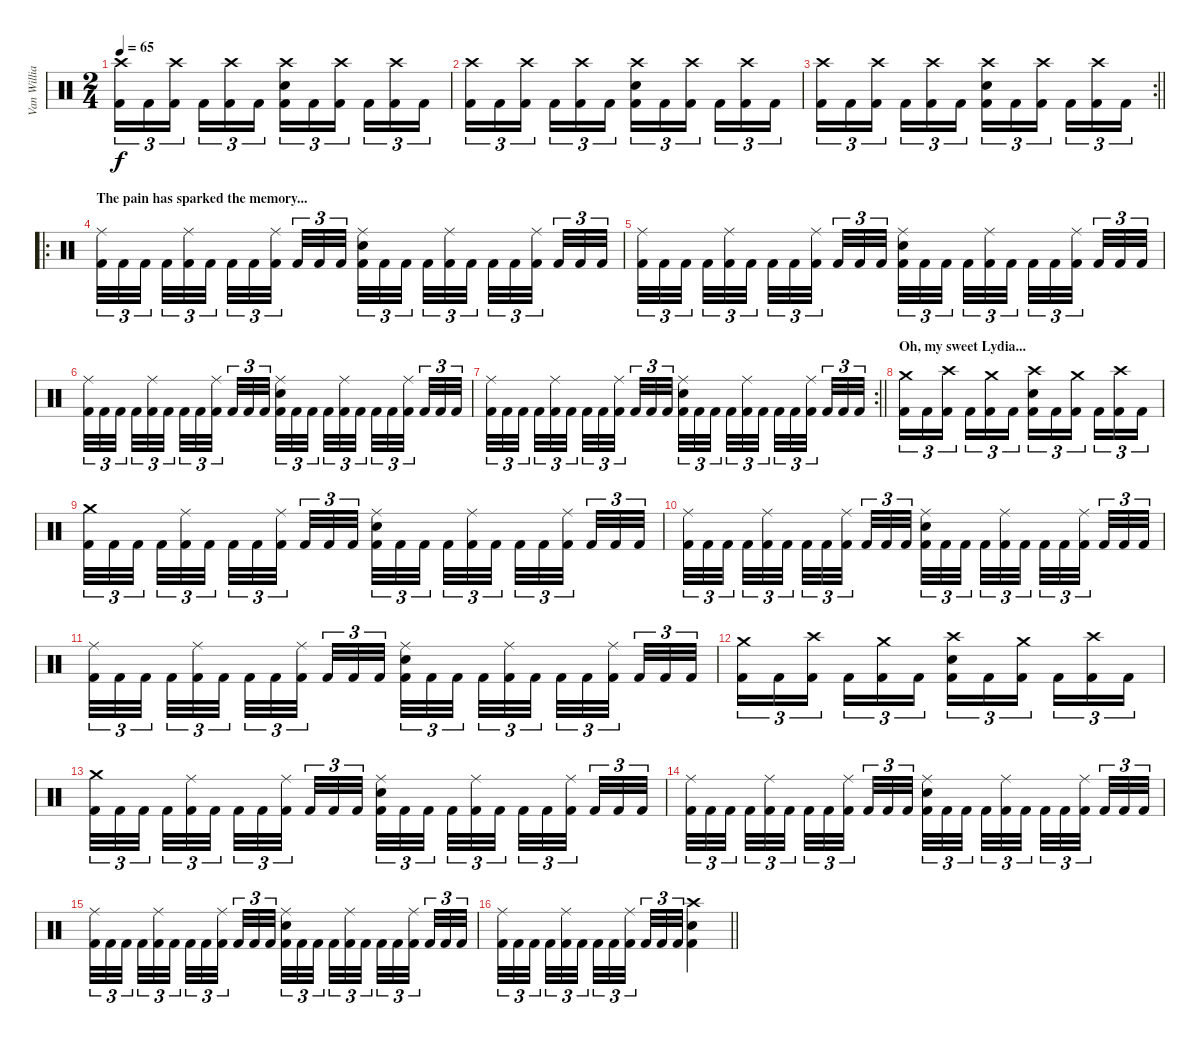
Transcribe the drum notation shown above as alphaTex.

\track ("Van Williams" "Van Willia") {instrument percussion}
\staff
\articulation defaults
\ts (2 4)
\tempo 65
\clef neutral
\ks c
("Crash high (hit)" "Kick (hit) 2").16{tu (3 2) dy f} "Kick (hit) 2".16{tu (3 2)} ("Crash high (hit)" "Kick (hit) 2").16{tu (3 2) beam splitsecondary} "Kick (hit) 2".16{tu (3 2)} ("Crash high (hit)" "Kick (hit) 2").16{tu (3 2)} "Kick (hit) 2".16{tu (3 2)} ("Crash high (hit)" "Electric Snare (hit)" "Kick (hit) 2").16{tu (3 2)} "Kick (hit) 2".16{tu (3 2)} ("Crash high (hit)" "Kick (hit) 2").16{tu (3 2) beam splitsecondary} "Kick (hit) 2".16{tu (3 2)} ("Crash high (hit)" "Kick (hit) 2").16{tu (3 2)} "Kick (hit) 2".16{tu (3 2)} |
("Crash high (hit)" "Kick (hit) 2").16{tu (3 2)} "Kick (hit) 2".16{tu (3 2)} ("Crash high (hit)" "Kick (hit) 2").16{tu (3 2) beam splitsecondary} "Kick (hit) 2".16{tu (3 2)} ("Crash high (hit)" "Kick (hit) 2").16{tu (3 2)} "Kick (hit) 2".16{tu (3 2)} ("Crash high (hit)" "Electric Snare (hit)" "Kick (hit) 2").16{tu (3 2)} "Kick (hit) 2".16{tu (3 2)} ("Crash high (hit)" "Kick (hit) 2").16{tu (3 2) beam splitsecondary} "Kick (hit) 2".16{tu (3 2)} ("Crash high (hit)" "Kick (hit) 2").16{tu (3 2)} "Kick (hit) 2".16{tu (3 2)} |
\rc 2
\barLineRight lightlight
("Crash high (hit)" "Kick (hit) 2").16{tu (3 2)} "Kick (hit) 2".16{tu (3 2)} ("Crash high (hit)" "Kick (hit) 2").16{tu (3 2) beam splitsecondary} "Kick (hit) 2".16{tu (3 2)} ("Crash high (hit)" "Kick (hit) 2").16{tu (3 2)} "Kick (hit) 2".16{tu (3 2)} ("Crash high (hit)" "Electric Snare (hit)" "Kick (hit) 2").16{tu (3 2)} "Kick (hit) 2".16{tu (3 2)} ("Crash high (hit)" "Kick (hit) 2").16{tu (3 2) beam splitsecondary} "Kick (hit) 2".16{tu (3 2)} ("Crash high (hit)" "Kick (hit) 2").16{tu (3 2)} "Kick (hit) 2".16{tu (3 2)} |
\ro
\section ("" "The pain has sparked the memory...")
("Ride (middle)" "Kick (hit) 2").32{tu (3 2)} "Kick (hit) 2".32{tu (3 2)} "Kick (hit) 2".32{tu (3 2) beam splitsecondary} "Kick (hit) 2".32{tu (3 2)} ("Ride (middle)" "Kick (hit) 2").32{tu (3 2)} "Kick (hit) 2".32{tu (3 2) beam splitsecondary} "Kick (hit) 2".32{tu (3 2)} "Kick (hit) 2".32{tu (3 2)} ("Ride (middle)" "Kick (hit) 2").32{tu (3 2) beam splitsecondary} "Kick (hit) 2".32{tu (3 2)} "Kick (hit) 2".32{tu (3 2)} "Kick (hit) 2".32{tu (3 2)} ("Ride (middle)" "Electric Snare (hit)" "Kick (hit) 2").32{tu (3 2)} "Kick (hit) 2".32{tu (3 2)} "Kick (hit) 2".32{tu (3 2) beam splitsecondary} "Kick (hit) 2".32{tu (3 2)} ("Ride (middle)" "Kick (hit) 2").32{tu (3 2)} "Kick (hit) 2".32{tu (3 2) beam splitsecondary} "Kick (hit) 2".32{tu (3 2)} "Kick (hit) 2".32{tu (3 2)} ("Ride (middle)" "Kick (hit) 2").32{tu (3 2) beam splitsecondary} "Kick (hit) 2".32{tu (3 2)} "Kick (hit) 2".32{tu (3 2)} "Kick (hit) 2".32{tu (3 2)} |
("Ride (middle)" "Kick (hit) 2").32{tu (3 2)} "Kick (hit) 2".32{tu (3 2)} "Kick (hit) 2".32{tu (3 2) beam splitsecondary} "Kick (hit) 2".32{tu (3 2)} ("Ride (middle)" "Kick (hit) 2").32{tu (3 2)} "Kick (hit) 2".32{tu (3 2) beam splitsecondary} "Kick (hit) 2".32{tu (3 2)} "Kick (hit) 2".32{tu (3 2)} ("Ride (middle)" "Kick (hit) 2").32{tu (3 2) beam splitsecondary} "Kick (hit) 2".32{tu (3 2)} "Kick (hit) 2".32{tu (3 2)} "Kick (hit) 2".32{tu (3 2)} ("Ride (middle)" "Electric Snare (hit)" "Kick (hit) 2").32{tu (3 2)} "Kick (hit) 2".32{tu (3 2)} "Kick (hit) 2".32{tu (3 2) beam splitsecondary} "Kick (hit) 2".32{tu (3 2)} ("Ride (middle)" "Kick (hit) 2").32{tu (3 2)} "Kick (hit) 2".32{tu (3 2) beam splitsecondary} "Kick (hit) 2".32{tu (3 2)} "Kick (hit) 2".32{tu (3 2)} ("Ride (middle)" "Kick (hit) 2").32{tu (3 2) beam splitsecondary} "Kick (hit) 2".32{tu (3 2)} "Kick (hit) 2".32{tu (3 2)} "Kick (hit) 2".32{tu (3 2)} |
("Ride (middle)" "Kick (hit) 2").32{tu (3 2)} "Kick (hit) 2".32{tu (3 2)} "Kick (hit) 2".32{tu (3 2) beam splitsecondary} "Kick (hit) 2".32{tu (3 2)} ("Ride (middle)" "Kick (hit) 2").32{tu (3 2)} "Kick (hit) 2".32{tu (3 2) beam splitsecondary} "Kick (hit) 2".32{tu (3 2)} "Kick (hit) 2".32{tu (3 2)} ("Ride (middle)" "Kick (hit) 2").32{tu (3 2) beam splitsecondary} "Kick (hit) 2".32{tu (3 2)} "Kick (hit) 2".32{tu (3 2)} "Kick (hit) 2".32{tu (3 2)} ("Ride (middle)" "Electric Snare (hit)" "Kick (hit) 2").32{tu (3 2)} "Kick (hit) 2".32{tu (3 2)} "Kick (hit) 2".32{tu (3 2) beam splitsecondary} "Kick (hit) 2".32{tu (3 2)} ("Ride (middle)" "Kick (hit) 2").32{tu (3 2)} "Kick (hit) 2".32{tu (3 2) beam splitsecondary} "Kick (hit) 2".32{tu (3 2)} "Kick (hit) 2".32{tu (3 2)} ("Ride (middle)" "Kick (hit) 2").32{tu (3 2) beam splitsecondary} "Kick (hit) 2".32{tu (3 2)} "Kick (hit) 2".32{tu (3 2)} "Kick (hit) 2".32{tu (3 2)} |
\rc 2
\barLineRight lightlight
("Ride (middle)" "Kick (hit) 2").32{tu (3 2)} "Kick (hit) 2".32{tu (3 2)} "Kick (hit) 2".32{tu (3 2) beam splitsecondary} "Kick (hit) 2".32{tu (3 2)} ("Ride (middle)" "Kick (hit) 2").32{tu (3 2)} "Kick (hit) 2".32{tu (3 2) beam splitsecondary} "Kick (hit) 2".32{tu (3 2)} "Kick (hit) 2".32{tu (3 2)} ("Ride (middle)" "Kick (hit) 2").32{tu (3 2) beam splitsecondary} "Kick (hit) 2".32{tu (3 2)} "Kick (hit) 2".32{tu (3 2)} "Kick (hit) 2".32{tu (3 2)} ("Ride (middle)" "Electric Snare (hit)" "Kick (hit) 2").32{tu (3 2)} "Kick (hit) 2".32{tu (3 2)} "Kick (hit) 2".32{tu (3 2) beam splitsecondary} "Kick (hit) 2".32{tu (3 2)} ("Ride (middle)" "Kick (hit) 2").32{tu (3 2)} "Kick (hit) 2".32{tu (3 2) beam splitsecondary} "Kick (hit) 2".32{tu (3 2)} "Kick (hit) 2".32{tu (3 2)} ("Ride (middle)" "Kick (hit) 2").32{tu (3 2) beam splitsecondary} "Kick (hit) 2".32{tu (3 2)} "Kick (hit) 2".32{tu (3 2)} "Kick (hit) 2".32{tu (3 2)} |
\section ("" "Oh, my sweet Lydia...")
("Crash medium (hit)" "Kick (hit) 2").16{tu (3 2)} "Kick (hit) 2".16{tu (3 2)} ("Crash high (hit)" "Kick (hit) 2").16{tu (3 2) beam splitsecondary} "Kick (hit) 2".16{tu (3 2)} ("Crash medium (hit)" "Kick (hit) 2").16{tu (3 2)} "Kick (hit) 2".16{tu (3 2)} ("Crash high (hit)" "Electric Snare (hit)" "Kick (hit) 2").16{tu (3 2)} "Kick (hit) 2".16{tu (3 2)} ("Crash medium (hit)" "Kick (hit) 2").16{tu (3 2) beam splitsecondary} "Kick (hit) 2".16{tu (3 2)} ("Crash high (hit)" "Kick (hit) 2").16{tu (3 2)} "Kick (hit) 2".16{tu (3 2)} |
("Crash medium (hit)" "Kick (hit) 2").32{tu (3 2)} "Kick (hit) 2".32{tu (3 2)} "Kick (hit) 2".32{tu (3 2) beam splitsecondary} "Kick (hit) 2".32{tu (3 2)} ("Ride (middle)" "Kick (hit) 2").32{tu (3 2)} "Kick (hit) 2".32{tu (3 2) beam splitsecondary} "Kick (hit) 2".32{tu (3 2)} "Kick (hit) 2".32{tu (3 2)} ("Ride (middle)" "Kick (hit) 2").32{tu (3 2) beam splitsecondary} "Kick (hit) 2".32{tu (3 2)} "Kick (hit) 2".32{tu (3 2)} "Kick (hit) 2".32{tu (3 2)} ("Ride (middle)" "Electric Snare (hit)" "Kick (hit) 2").32{tu (3 2)} "Kick (hit) 2".32{tu (3 2)} "Kick (hit) 2".32{tu (3 2) beam splitsecondary} "Kick (hit) 2".32{tu (3 2)} ("Ride (middle)" "Kick (hit) 2").32{tu (3 2)} "Kick (hit) 2".32{tu (3 2) beam splitsecondary} "Kick (hit) 2".32{tu (3 2)} "Kick (hit) 2".32{tu (3 2)} ("Ride (middle)" "Kick (hit) 2").32{tu (3 2) beam splitsecondary} "Kick (hit) 2".32{tu (3 2)} "Kick (hit) 2".32{tu (3 2)} "Kick (hit) 2".32{tu (3 2)} |
("Ride (middle)" "Kick (hit) 2").32{tu (3 2)} "Kick (hit) 2".32{tu (3 2)} "Kick (hit) 2".32{tu (3 2) beam splitsecondary} "Kick (hit) 2".32{tu (3 2)} ("Ride (middle)" "Kick (hit) 2").32{tu (3 2)} "Kick (hit) 2".32{tu (3 2) beam splitsecondary} "Kick (hit) 2".32{tu (3 2)} "Kick (hit) 2".32{tu (3 2)} ("Ride (middle)" "Kick (hit) 2").32{tu (3 2) beam splitsecondary} "Kick (hit) 2".32{tu (3 2)} "Kick (hit) 2".32{tu (3 2)} "Kick (hit) 2".32{tu (3 2)} ("Ride (middle)" "Electric Snare (hit)" "Kick (hit) 2").32{tu (3 2)} "Kick (hit) 2".32{tu (3 2)} "Kick (hit) 2".32{tu (3 2) beam splitsecondary} "Kick (hit) 2".32{tu (3 2)} ("Ride (middle)" "Kick (hit) 2").32{tu (3 2)} "Kick (hit) 2".32{tu (3 2) beam splitsecondary} "Kick (hit) 2".32{tu (3 2)} "Kick (hit) 2".32{tu (3 2)} ("Ride (middle)" "Kick (hit) 2").32{tu (3 2) beam splitsecondary} "Kick (hit) 2".32{tu (3 2)} "Kick (hit) 2".32{tu (3 2)} "Kick (hit) 2".32{tu (3 2)} |
("Ride (middle)" "Kick (hit) 2").32{tu (3 2)} "Kick (hit) 2".32{tu (3 2)} "Kick (hit) 2".32{tu (3 2) beam splitsecondary} "Kick (hit) 2".32{tu (3 2)} ("Ride (middle)" "Kick (hit) 2").32{tu (3 2)} "Kick (hit) 2".32{tu (3 2) beam splitsecondary} "Kick (hit) 2".32{tu (3 2)} "Kick (hit) 2".32{tu (3 2)} ("Ride (middle)" "Kick (hit) 2").32{tu (3 2) beam splitsecondary} "Kick (hit) 2".32{tu (3 2)} "Kick (hit) 2".32{tu (3 2)} "Kick (hit) 2".32{tu (3 2)} ("Ride (middle)" "Electric Snare (hit)" "Kick (hit) 2").32{tu (3 2)} "Kick (hit) 2".32{tu (3 2)} "Kick (hit) 2".32{tu (3 2) beam splitsecondary} "Kick (hit) 2".32{tu (3 2)} ("Ride (middle)" "Kick (hit) 2").32{tu (3 2)} "Kick (hit) 2".32{tu (3 2) beam splitsecondary} "Kick (hit) 2".32{tu (3 2)} "Kick (hit) 2".32{tu (3 2)} ("Ride (middle)" "Kick (hit) 2").32{tu (3 2) beam splitsecondary} "Kick (hit) 2".32{tu (3 2)} "Kick (hit) 2".32{tu (3 2)} "Kick (hit) 2".32{tu (3 2)} |
("Crash medium (hit)" "Kick (hit) 2").16{tu (3 2)} "Kick (hit) 2".16{tu (3 2)} ("Crash high (hit)" "Kick (hit) 2").16{tu (3 2) beam splitsecondary} "Kick (hit) 2".16{tu (3 2)} ("Crash medium (hit)" "Kick (hit) 2").16{tu (3 2)} "Kick (hit) 2".16{tu (3 2)} ("Crash high (hit)" "Electric Snare (hit)" "Kick (hit) 2").16{tu (3 2)} "Kick (hit) 2".16{tu (3 2)} ("Crash medium (hit)" "Kick (hit) 2").16{tu (3 2) beam splitsecondary} "Kick (hit) 2".16{tu (3 2)} ("Crash high (hit)" "Kick (hit) 2").16{tu (3 2)} "Kick (hit) 2".16{tu (3 2)} |
("Crash medium (hit)" "Kick (hit) 2").32{tu (3 2)} "Kick (hit) 2".32{tu (3 2)} "Kick (hit) 2".32{tu (3 2) beam splitsecondary} "Kick (hit) 2".32{tu (3 2)} ("Ride (middle)" "Kick (hit) 2").32{tu (3 2)} "Kick (hit) 2".32{tu (3 2) beam splitsecondary} "Kick (hit) 2".32{tu (3 2)} "Kick (hit) 2".32{tu (3 2)} ("Ride (middle)" "Kick (hit) 2").32{tu (3 2) beam splitsecondary} "Kick (hit) 2".32{tu (3 2)} "Kick (hit) 2".32{tu (3 2)} "Kick (hit) 2".32{tu (3 2)} ("Ride (middle)" "Electric Snare (hit)" "Kick (hit) 2").32{tu (3 2)} "Kick (hit) 2".32{tu (3 2)} "Kick (hit) 2".32{tu (3 2) beam splitsecondary} "Kick (hit) 2".32{tu (3 2)} ("Ride (middle)" "Kick (hit) 2").32{tu (3 2)} "Kick (hit) 2".32{tu (3 2) beam splitsecondary} "Kick (hit) 2".32{tu (3 2)} "Kick (hit) 2".32{tu (3 2)} ("Ride (middle)" "Kick (hit) 2").32{tu (3 2) beam splitsecondary} "Kick (hit) 2".32{tu (3 2)} "Kick (hit) 2".32{tu (3 2)} "Kick (hit) 2".32{tu (3 2)} |
("Ride (middle)" "Kick (hit) 2").32{tu (3 2)} "Kick (hit) 2".32{tu (3 2)} "Kick (hit) 2".32{tu (3 2) beam splitsecondary} "Kick (hit) 2".32{tu (3 2)} ("Ride (middle)" "Kick (hit) 2").32{tu (3 2)} "Kick (hit) 2".32{tu (3 2) beam splitsecondary} "Kick (hit) 2".32{tu (3 2)} "Kick (hit) 2".32{tu (3 2)} ("Ride (middle)" "Kick (hit) 2").32{tu (3 2) beam splitsecondary} "Kick (hit) 2".32{tu (3 2)} "Kick (hit) 2".32{tu (3 2)} "Kick (hit) 2".32{tu (3 2)} ("Ride (middle)" "Electric Snare (hit)" "Kick (hit) 2").32{tu (3 2)} "Kick (hit) 2".32{tu (3 2)} "Kick (hit) 2".32{tu (3 2) beam splitsecondary} "Kick (hit) 2".32{tu (3 2)} ("Ride (middle)" "Kick (hit) 2").32{tu (3 2)} "Kick (hit) 2".32{tu (3 2) beam splitsecondary} "Kick (hit) 2".32{tu (3 2)} "Kick (hit) 2".32{tu (3 2)} ("Ride (middle)" "Kick (hit) 2").32{tu (3 2) beam splitsecondary} "Kick (hit) 2".32{tu (3 2)} "Kick (hit) 2".32{tu (3 2)} "Kick (hit) 2".32{tu (3 2)} |
("Ride (middle)" "Kick (hit) 2").32{tu (3 2)} "Kick (hit) 2".32{tu (3 2)} "Kick (hit) 2".32{tu (3 2) beam splitsecondary} "Kick (hit) 2".32{tu (3 2)} ("Ride (middle)" "Kick (hit) 2").32{tu (3 2)} "Kick (hit) 2".32{tu (3 2) beam splitsecondary} "Kick (hit) 2".32{tu (3 2)} "Kick (hit) 2".32{tu (3 2)} ("Ride (middle)" "Kick (hit) 2").32{tu (3 2) beam splitsecondary} "Kick (hit) 2".32{tu (3 2)} "Kick (hit) 2".32{tu (3 2)} "Kick (hit) 2".32{tu (3 2)} ("Ride (middle)" "Electric Snare (hit)" "Kick (hit) 2").32{tu (3 2)} "Kick (hit) 2".32{tu (3 2)} "Kick (hit) 2".32{tu (3 2) beam splitsecondary} "Kick (hit) 2".32{tu (3 2)} ("Ride (middle)" "Kick (hit) 2").32{tu (3 2)} "Kick (hit) 2".32{tu (3 2) beam splitsecondary} "Kick (hit) 2".32{tu (3 2)} "Kick (hit) 2".32{tu (3 2)} ("Ride (middle)" "Kick (hit) 2").32{tu (3 2) beam splitsecondary} "Kick (hit) 2".32{tu (3 2)} "Kick (hit) 2".32{tu (3 2)} "Kick (hit) 2".32{tu (3 2)} |
\barLineRight lightlight
("Ride (middle)" "Kick (hit) 2").32{tu (3 2)} "Kick (hit) 2".32{tu (3 2)} "Kick (hit) 2".32{tu (3 2) beam splitsecondary} "Kick (hit) 2".32{tu (3 2)} ("Ride (middle)" "Kick (hit) 2").32{tu (3 2)} "Kick (hit) 2".32{tu (3 2) beam splitsecondary} "Kick (hit) 2".32{tu (3 2)} "Kick (hit) 2".32{tu (3 2)} ("Ride (middle)" "Kick (hit) 2").32{tu (3 2) beam splitsecondary} "Kick (hit) 2".32{tu (3 2)} "Kick (hit) 2".32{tu (3 2)} "Kick (hit) 2".32{tu (3 2)} ("Crash high (hit)" "Electric Snare (hit)" "Kick (hit) 2").4
